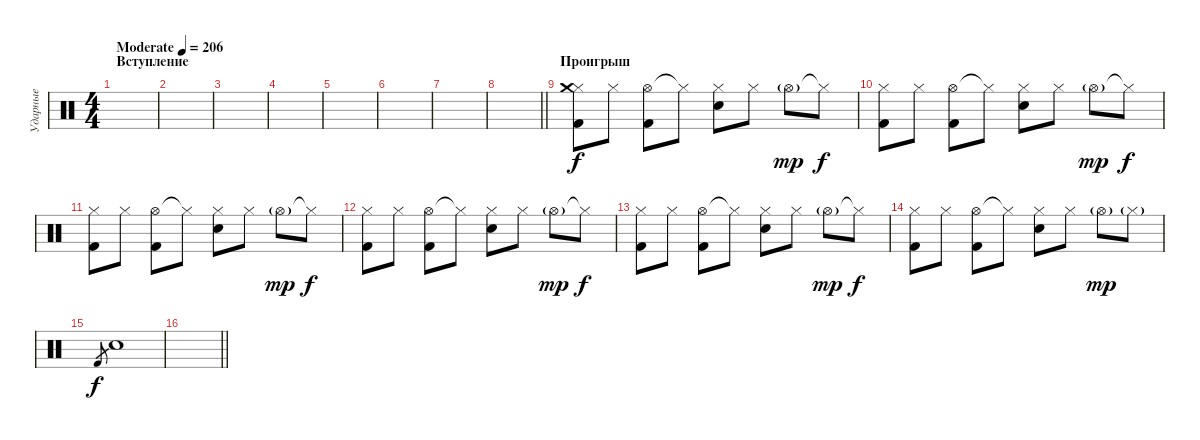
\track ("Ударные" "Ударные") {instrument percussion}
\staff {score}
\articulation defaults
\ts (4 4)
\section ("" "Вступление")
\tempo (206 "Moderate")
\clef neutral
\ks c
|
|
|
|
|
|
|
\barLineRight lightlight
|
\section ("" "Проигрыш")
("Hi-Hat (closed)" "Kick (hit) 2" "Crash medium (hit)").8 "Hi-Hat (closed)".8 ("Hi-Hat (open)" "Kick (hit) 2").8 "Hi-Hat (closed)"{t}.8 ("Hi-Hat (closed)" "Electric Snare (hit)").8 "Hi-Hat (closed)".8 "Hi-Hat (open)"{g}.8{dy mp} "Hi-Hat (closed)"{t}.8{dy f} |
("Hi-Hat (closed)" "Kick (hit) 2").8 "Hi-Hat (closed)".8 ("Hi-Hat (open)" "Kick (hit) 2").8 "Hi-Hat (closed)"{t}.8 ("Hi-Hat (closed)" "Electric Snare (hit)").8 "Hi-Hat (closed)".8 "Hi-Hat (open)"{g}.8{dy mp} "Hi-Hat (closed)"{t}.8{dy f} |
("Hi-Hat (closed)" "Kick (hit) 2").8 "Hi-Hat (closed)".8 ("Hi-Hat (open)" "Kick (hit) 2").8 "Hi-Hat (closed)"{t}.8 ("Hi-Hat (closed)" "Electric Snare (hit)").8 "Hi-Hat (closed)".8 "Hi-Hat (open)"{g}.8{dy mp} "Hi-Hat (closed)"{t}.8{dy f} |
("Hi-Hat (closed)" "Kick (hit) 2").8 "Hi-Hat (closed)".8 ("Hi-Hat (open)" "Kick (hit) 2").8 "Hi-Hat (closed)"{t}.8 ("Hi-Hat (closed)" "Electric Snare (hit)").8 "Hi-Hat (closed)".8 "Hi-Hat (open)"{g}.8{dy mp} "Hi-Hat (closed)"{t}.8{dy f} |
("Hi-Hat (closed)" "Kick (hit) 2").8 "Hi-Hat (closed)".8 ("Hi-Hat (open)" "Kick (hit) 2").8 "Hi-Hat (closed)"{t}.8 ("Hi-Hat (closed)" "Electric Snare (hit)").8 "Hi-Hat (closed)".8 "Hi-Hat (open)"{g}.8{dy mp} "Hi-Hat (closed)"{t}.8{dy f} |
("Hi-Hat (closed)" "Kick (hit) 2").8 "Hi-Hat (closed)".8 ("Hi-Hat (open)" "Kick (hit) 2").8 "Hi-Hat (closed)"{t}.8 ("Hi-Hat (closed)" "Electric Snare (hit)").8 "Hi-Hat (closed)".8 "Hi-Hat (open)"{g}.8{dy mp} "Hi-Hat (closed)"{g}.8 |
"Kick (hit) 2".8{gr dy f} "Electric Snare (hit)".1 |
\barLineRight lightlight
